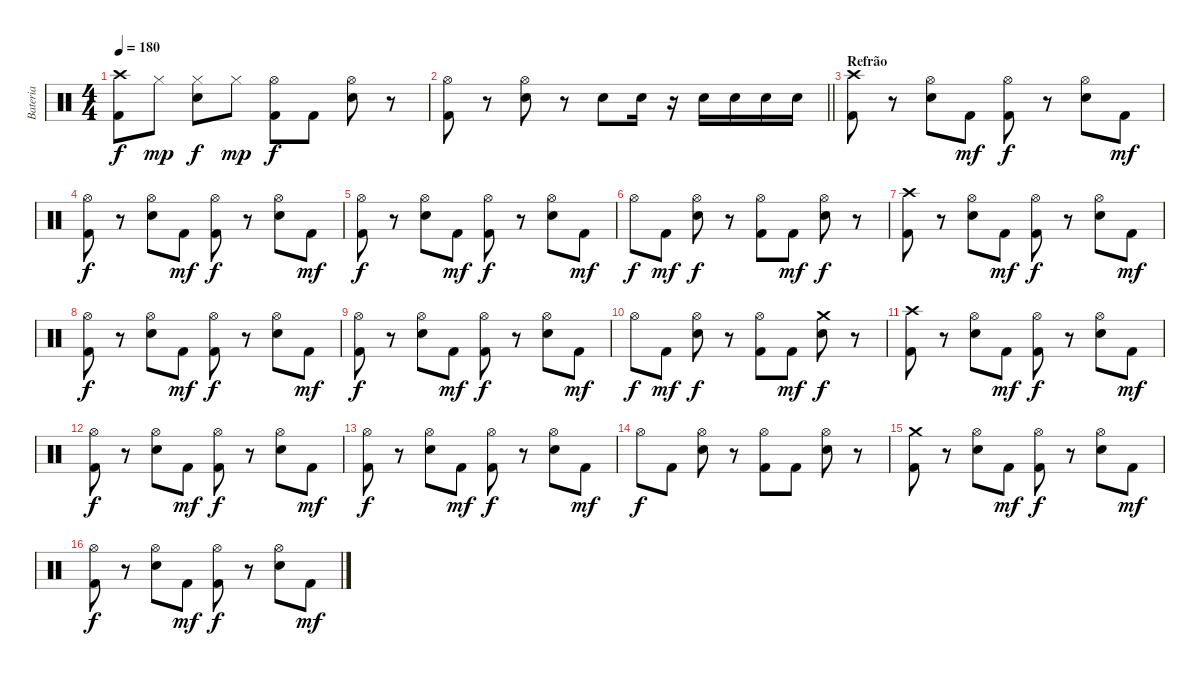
\track ("Bateria" "Bateria") {instrument percussion}
\staff {score}
\articulation defaults
\ts (4 4)
\tempo 180
\clef neutral
\ks c
("Crash high (hit)" "Kick (hit) 2").8{dy f} "Hi-Hat (closed)".8{dy mp} ("Hi-Hat (closed)" "Electric Snare (hit)").8{dy f} "Hi-Hat (closed)".8{dy mp} ("Hi-Hat (open)" "Kick (hit) 2").8{dy f} "Kick (hit) 2".8 ("Hi-Hat (open)" "Electric Snare (hit)").8 r.8 |
\barLineRight lightlight
("Hi-Hat (open)" "Kick (hit) 2").8 r.8 ("Hi-Hat (open)" "Electric Snare (hit)").8 r.8 "Electric Snare (hit)".8 "Electric Snare (hit)".16 r.16 "Electric Snare (hit)".16 "Electric Snare (hit)".16 "Electric Snare (hit)".16 "Electric Snare (hit)".16 |
\section ("" "Refrão")
("Crash high (hit)" "Kick (hit) 2").8 r.8 ("Hi-Hat (open)" "Electric Snare (hit)").8 "Kick (hit) 2".8{dy mf} ("Hi-Hat (open)" "Kick (hit) 2").8{dy f} r.8 ("Hi-Hat (open)" "Electric Snare (hit)").8 "Kick (hit) 2".8{dy mf} |
("Hi-Hat (open)" "Kick (hit) 2").8{dy f} r.8 ("Hi-Hat (open)" "Electric Snare (hit)").8 "Kick (hit) 2".8{dy mf} ("Hi-Hat (open)" "Kick (hit) 2").8{dy f} r.8 ("Hi-Hat (open)" "Electric Snare (hit)").8 "Kick (hit) 2".8{dy mf} |
("Hi-Hat (open)" "Kick (hit) 2").8{dy f} r.8 ("Hi-Hat (open)" "Electric Snare (hit)").8 "Kick (hit) 2".8{dy mf} ("Hi-Hat (open)" "Kick (hit) 2").8{dy f} r.8 ("Hi-Hat (open)" "Electric Snare (hit)").8 "Kick (hit) 2".8{dy mf} |
"Hi-Hat (open)".8{dy f} "Kick (hit) 2".8{dy mf} ("Hi-Hat (open)" "Electric Snare (hit)").8{dy f} r.8 ("Hi-Hat (open)" "Kick (hit) 2").8 "Kick (hit) 2".8{dy mf} ("Hi-Hat (open)" "Electric Snare (hit)").8{dy f} r.8 |
("Crash high (hit)" "Kick (hit) 2").8 r.8 ("Hi-Hat (open)" "Electric Snare (hit)").8 "Kick (hit) 2".8{dy mf} ("Hi-Hat (open)" "Kick (hit) 2").8{dy f} r.8 ("Hi-Hat (open)" "Electric Snare (hit)").8 "Kick (hit) 2".8{dy mf} |
("Hi-Hat (open)" "Kick (hit) 2").8{dy f} r.8 ("Hi-Hat (open)" "Electric Snare (hit)").8 "Kick (hit) 2".8{dy mf} ("Hi-Hat (open)" "Kick (hit) 2").8{dy f} r.8 ("Hi-Hat (open)" "Electric Snare (hit)").8 "Kick (hit) 2".8{dy mf} |
("Hi-Hat (open)" "Kick (hit) 2").8{dy f} r.8 ("Hi-Hat (open)" "Electric Snare (hit)").8 "Kick (hit) 2".8{dy mf} ("Hi-Hat (open)" "Kick (hit) 2").8{dy f} r.8 ("Hi-Hat (open)" "Electric Snare (hit)").8 "Kick (hit) 2".8{dy mf} |
"Hi-Hat (open)".8{dy f} "Kick (hit) 2".8{dy mf} ("Hi-Hat (open)" "Electric Snare (hit)").8{dy f} r.8 ("Hi-Hat (open)" "Kick (hit) 2").8 "Kick (hit) 2".8{dy mf} ("Crash medium (hit)" "Electric Snare (hit)").8{dy f} r.8 |
("Crash high (hit)" "Kick (hit) 2").8 r.8 ("Hi-Hat (open)" "Electric Snare (hit)").8 "Kick (hit) 2".8{dy mf} ("Hi-Hat (open)" "Kick (hit) 2").8{dy f} r.8 ("Hi-Hat (open)" "Electric Snare (hit)").8 "Kick (hit) 2".8{dy mf} |
("Hi-Hat (open)" "Kick (hit) 2").8{dy f} r.8 ("Hi-Hat (open)" "Electric Snare (hit)").8 "Kick (hit) 2".8{dy mf} ("Hi-Hat (open)" "Kick (hit) 2").8{dy f} r.8 ("Hi-Hat (open)" "Electric Snare (hit)").8 "Kick (hit) 2".8{dy mf} |
("Hi-Hat (open)" "Kick (hit) 2").8{dy f} r.8 ("Hi-Hat (open)" "Electric Snare (hit)").8 "Kick (hit) 2".8{dy mf} ("Hi-Hat (open)" "Kick (hit) 2").8{dy f} r.8 ("Hi-Hat (open)" "Electric Snare (hit)").8 "Kick (hit) 2".8{dy mf} |
"Hi-Hat (open)".8{dy f} "Kick (hit) 2".8 ("Hi-Hat (open)" "Electric Snare (hit)").8 r.8 ("Hi-Hat (open)" "Kick (hit) 2").8 "Kick (hit) 2".8 ("Hi-Hat (open)" "Electric Snare (hit)").8 r.8 |
("Crash medium (hit)" "Kick (hit) 2").8 r.8 ("Hi-Hat (open)" "Electric Snare (hit)").8 "Kick (hit) 2".8{dy mf} ("Hi-Hat (open)" "Kick (hit) 2").8{dy f} r.8 ("Hi-Hat (open)" "Electric Snare (hit)").8 "Kick (hit) 2".8{dy mf} |
("Hi-Hat (open)" "Kick (hit) 2").8{dy f} r.8 ("Hi-Hat (open)" "Electric Snare (hit)").8 "Kick (hit) 2".8{dy mf} ("Hi-Hat (open)" "Kick (hit) 2").8{dy f} r.8 ("Hi-Hat (open)" "Electric Snare (hit)").8 "Kick (hit) 2".8{dy mf}
